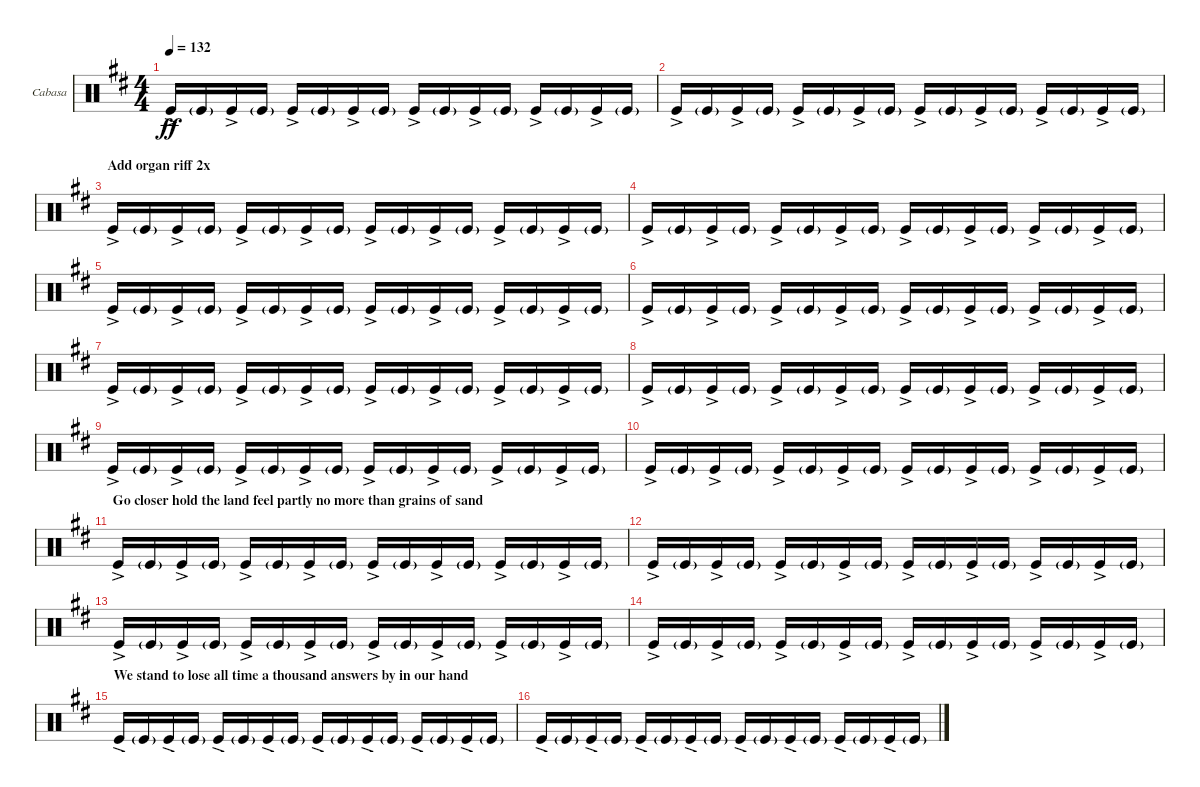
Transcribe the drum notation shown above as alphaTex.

\bracketExtendMode groupsimilarinstruments
\firstSystemTrackNameOrientation horizontal
\otherSystemsTrackNameOrientation horizontal
\track ("Cabasa" "Cabasa") {instrument percussion}
\staff {score}
\articulation defaults
\ts (4 4)
\tempo 132
\clef neutral
\ks bminor "Kick (hit)"{ac}.16{dy ff} "Kick (hit)"{g}.16 "Kick (hit)"{ac}.16 "Kick (hit)"{g}.16 "Kick (hit)"{ac}.16 "Kick (hit)"{g}.16 "Kick (hit)"{ac}.16 "Kick (hit)"{g}.16 "Kick (hit)"{ac}.16 "Kick (hit)"{g}.16 "Kick (hit)"{ac}.16 "Kick (hit)"{g}.16 "Kick (hit)"{ac}.16 "Kick (hit)"{g}.16 "Kick (hit)"{ac}.16 "Kick (hit)"{g}.16
|
"Kick (hit)"{ac}.16 "Kick (hit)"{g}.16 "Kick (hit)"{ac}.16 "Kick (hit)"{g}.16 "Kick (hit)"{ac}.16 "Kick (hit)"{g}.16 "Kick (hit)"{ac}.16 "Kick (hit)"{g}.16 "Kick (hit)"{ac}.16 "Kick (hit)"{g}.16 "Kick (hit)"{ac}.16 "Kick (hit)"{g}.16 "Kick (hit)"{ac}.16 "Kick (hit)"{g}.16 "Kick (hit)"{ac}.16 "Kick (hit)"{g}.16 |
\section ("" "Add organ riff 2x")
"Kick (hit)"{ac}.16 "Kick (hit)"{g}.16 "Kick (hit)"{ac}.16 "Kick (hit)"{g}.16 "Kick (hit)"{ac}.16 "Kick (hit)"{g}.16 "Kick (hit)"{ac}.16 "Kick (hit)"{g}.16 "Kick (hit)"{ac}.16 "Kick (hit)"{g}.16 "Kick (hit)"{ac}.16 "Kick (hit)"{g}.16 "Kick (hit)"{ac}.16 "Kick (hit)"{g}.16 "Kick (hit)"{ac}.16 "Kick (hit)"{g}.16 |
"Kick (hit)"{ac}.16 "Kick (hit)"{g}.16 "Kick (hit)"{ac}.16 "Kick (hit)"{g}.16 "Kick (hit)"{ac}.16 "Kick (hit)"{g}.16 "Kick (hit)"{ac}.16 "Kick (hit)"{g}.16 "Kick (hit)"{ac}.16 "Kick (hit)"{g}.16 "Kick (hit)"{ac}.16 "Kick (hit)"{g}.16 "Kick (hit)"{ac}.16 "Kick (hit)"{g}.16 "Kick (hit)"{ac}.16 "Kick (hit)"{g}.16 |
"Kick (hit)"{ac}.16 "Kick (hit)"{g}.16 "Kick (hit)"{ac}.16 "Kick (hit)"{g}.16 "Kick (hit)"{ac}.16 "Kick (hit)"{g}.16 "Kick (hit)"{ac}.16 "Kick (hit)"{g}.16 "Kick (hit)"{ac}.16 "Kick (hit)"{g}.16 "Kick (hit)"{ac}.16 "Kick (hit)"{g}.16 "Kick (hit)"{ac}.16 "Kick (hit)"{g}.16 "Kick (hit)"{ac}.16 "Kick (hit)"{g}.16 |
"Kick (hit)"{ac}.16 "Kick (hit)"{g}.16 "Kick (hit)"{ac}.16 "Kick (hit)"{g}.16 "Kick (hit)"{ac}.16 "Kick (hit)"{g}.16 "Kick (hit)"{ac}.16 "Kick (hit)"{g}.16 "Kick (hit)"{ac}.16 "Kick (hit)"{g}.16 "Kick (hit)"{ac}.16 "Kick (hit)"{g}.16 "Kick (hit)"{ac}.16 "Kick (hit)"{g}.16 "Kick (hit)"{ac}.16 "Kick (hit)"{g}.16 |
"Kick (hit)"{ac}.16 "Kick (hit)"{g}.16 "Kick (hit)"{ac}.16 "Kick (hit)"{g}.16 "Kick (hit)"{ac}.16 "Kick (hit)"{g}.16 "Kick (hit)"{ac}.16 "Kick (hit)"{g}.16 "Kick (hit)"{ac}.16 "Kick (hit)"{g}.16 "Kick (hit)"{ac}.16 "Kick (hit)"{g}.16 "Kick (hit)"{ac}.16 "Kick (hit)"{g}.16 "Kick (hit)"{ac}.16 "Kick (hit)"{g}.16 |
"Kick (hit)"{ac}.16 "Kick (hit)"{g}.16 "Kick (hit)"{ac}.16 "Kick (hit)"{g}.16 "Kick (hit)"{ac}.16 "Kick (hit)"{g}.16 "Kick (hit)"{ac}.16 "Kick (hit)"{g}.16 "Kick (hit)"{ac}.16 "Kick (hit)"{g}.16 "Kick (hit)"{ac}.16 "Kick (hit)"{g}.16 "Kick (hit)"{ac}.16 "Kick (hit)"{g}.16 "Kick (hit)"{ac}.16 "Kick (hit)"{g}.16 |
"Kick (hit)"{ac}.16 "Kick (hit)"{g}.16 "Kick (hit)"{ac}.16 "Kick (hit)"{g}.16 "Kick (hit)"{ac}.16 "Kick (hit)"{g}.16 "Kick (hit)"{ac}.16 "Kick (hit)"{g}.16 "Kick (hit)"{ac}.16 "Kick (hit)"{g}.16 "Kick (hit)"{ac}.16 "Kick (hit)"{g}.16 "Kick (hit)"{ac}.16 "Kick (hit)"{g}.16 "Kick (hit)"{ac}.16 "Kick (hit)"{g}.16 |
"Kick (hit)"{ac}.16 "Kick (hit)"{g}.16 "Kick (hit)"{ac}.16 "Kick (hit)"{g}.16 "Kick (hit)"{ac}.16 "Kick (hit)"{g}.16 "Kick (hit)"{ac}.16 "Kick (hit)"{g}.16 "Kick (hit)"{ac}.16 "Kick (hit)"{g}.16 "Kick (hit)"{ac}.16 "Kick (hit)"{g}.16 "Kick (hit)"{ac}.16 "Kick (hit)"{g}.16 "Kick (hit)"{ac}.16 "Kick (hit)"{g}.16 |
\section ("" "Go closer hold the land feel partly no more than grains of sand")
"Kick (hit)"{ac}.16 "Kick (hit)"{g}.16 "Kick (hit)"{ac}.16 "Kick (hit)"{g}.16 "Kick (hit)"{ac}.16 "Kick (hit)"{g}.16 "Kick (hit)"{ac}.16 "Kick (hit)"{g}.16 "Kick (hit)"{ac}.16 "Kick (hit)"{g}.16 "Kick (hit)"{ac}.16 "Kick (hit)"{g}.16 "Kick (hit)"{ac}.16 "Kick (hit)"{g}.16 "Kick (hit)"{ac}.16 "Kick (hit)"{g}.16 |
"Kick (hit)"{ac}.16 "Kick (hit)"{g}.16 "Kick (hit)"{ac}.16 "Kick (hit)"{g}.16 "Kick (hit)"{ac}.16 "Kick (hit)"{g}.16 "Kick (hit)"{ac}.16 "Kick (hit)"{g}.16 "Kick (hit)"{ac}.16 "Kick (hit)"{g}.16 "Kick (hit)"{ac}.16 "Kick (hit)"{g}.16 "Kick (hit)"{ac}.16 "Kick (hit)"{g}.16 "Kick (hit)"{ac}.16 "Kick (hit)"{g}.16 |
"Kick (hit)"{ac}.16 "Kick (hit)"{g}.16 "Kick (hit)"{ac}.16 "Kick (hit)"{g}.16 "Kick (hit)"{ac}.16 "Kick (hit)"{g}.16 "Kick (hit)"{ac}.16 "Kick (hit)"{g}.16 "Kick (hit)"{ac}.16 "Kick (hit)"{g}.16 "Kick (hit)"{ac}.16 "Kick (hit)"{g}.16 "Kick (hit)"{ac}.16 "Kick (hit)"{g}.16 "Kick (hit)"{ac}.16 "Kick (hit)"{g}.16 |
"Kick (hit)"{ac}.16 "Kick (hit)"{g}.16 "Kick (hit)"{ac}.16 "Kick (hit)"{g}.16 "Kick (hit)"{ac}.16 "Kick (hit)"{g}.16 "Kick (hit)"{ac}.16 "Kick (hit)"{g}.16 "Kick (hit)"{ac}.16 "Kick (hit)"{g}.16 "Kick (hit)"{ac}.16 "Kick (hit)"{g}.16 "Kick (hit)"{ac}.16 "Kick (hit)"{g}.16 "Kick (hit)"{ac}.16 "Kick (hit)"{g}.16 |
\section ("" "We stand to lose all time a thousand answers by in our hand")
"Kick (hit)"{ac}.16 "Kick (hit)"{g}.16 "Kick (hit)"{ac}.16 "Kick (hit)"{g}.16 "Kick (hit)"{ac}.16 "Kick (hit)"{g}.16 "Kick (hit)"{ac}.16 "Kick (hit)"{g}.16 "Kick (hit)"{ac}.16 "Kick (hit)"{g}.16 "Kick (hit)"{ac}.16 "Kick (hit)"{g}.16 "Kick (hit)"{ac}.16 "Kick (hit)"{g}.16 "Kick (hit)"{ac}.16 "Kick (hit)"{g}.16 |
"Kick (hit)"{ac}.16 "Kick (hit)"{g}.16 "Kick (hit)"{ac}.16 "Kick (hit)"{g}.16 "Kick (hit)"{ac}.16 "Kick (hit)"{g}.16 "Kick (hit)"{ac}.16 "Kick (hit)"{g}.16 "Kick (hit)"{ac}.16 "Kick (hit)"{g}.16 "Kick (hit)"{ac}.16 "Kick (hit)"{g}.16 "Kick (hit)"{ac}.16 "Kick (hit)"{g}.16 "Kick (hit)"{ac}.16 "Kick (hit)"{g}.16
